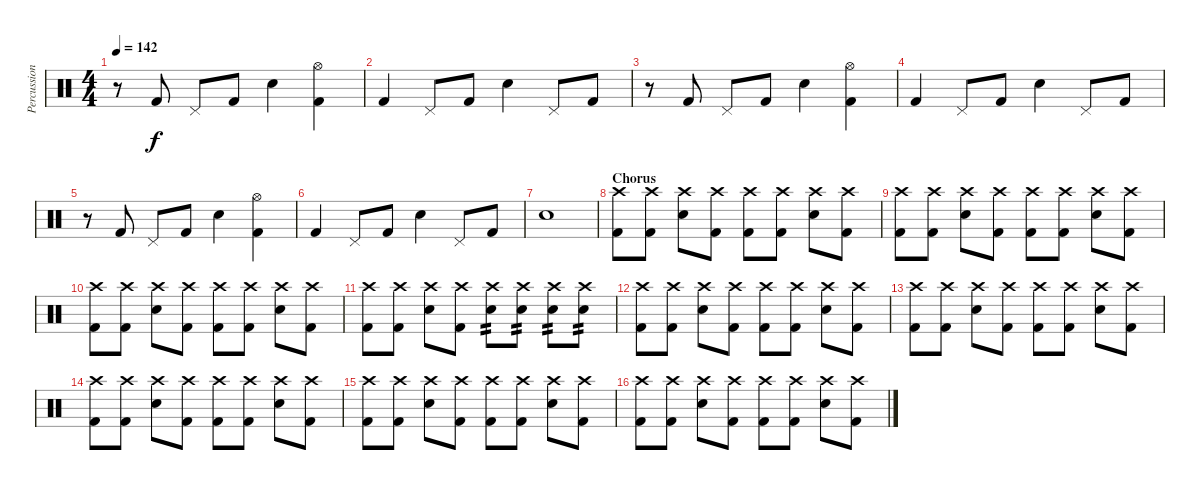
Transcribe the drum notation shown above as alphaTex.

\track ("Percussion" "Percussion") {instrument percussion}
\staff {score}
\articulation defaults
\ts (4 4)
\tempo 142
\clef neutral
\ks c
r.8{dy f} "Kick (hit) 2".8 "Pedal Hi-Hat (hit)".8 "Kick (hit) 2".8 "Snare (hit) 2".4 ("Hi-Hat (open)" "Kick (hit) 2").4 |
"Kick (hit) 2".4 "Pedal Hi-Hat (hit)".8 "Kick (hit) 2".8 "Snare (hit) 2".4 "Pedal Hi-Hat (hit)".8 "Kick (hit) 2".8 |
r.8 "Kick (hit) 2".8 "Pedal Hi-Hat (hit)".8 "Kick (hit) 2".8 "Snare (hit) 2".4 ("Hi-Hat (open)" "Kick (hit) 2").4 |
"Kick (hit) 2".4 "Pedal Hi-Hat (hit)".8 "Kick (hit) 2".8 "Snare (hit) 2".4 "Pedal Hi-Hat (hit)".8 "Kick (hit) 2".8 |
r.8 "Kick (hit) 2".8 "Pedal Hi-Hat (hit)".8 "Kick (hit) 2".8 "Snare (hit) 2".4 ("Hi-Hat (open)" "Kick (hit) 2").4 |
"Kick (hit) 2".4 "Pedal Hi-Hat (hit)".8 "Kick (hit) 2".8 "Snare (hit) 2".4 "Pedal Hi-Hat (hit)".8 "Kick (hit) 2".8 |
"Snare (hit) 2".1 |
\section ("" "Chorus")
("Crash high (hit)" "Kick (hit) 2").8 ("Crash high (hit)" "Kick (hit) 2").8 ("Crash high (hit)" "Snare (hit) 2").8 ("Crash high (hit)" "Kick (hit) 2").8 ("Crash high (hit)" "Kick (hit) 2").8 ("Crash high (hit)" "Kick (hit) 2").8 ("Crash high (hit)" "Snare (hit) 2").8 ("Crash high (hit)" "Kick (hit) 2").8 |
("Crash high (hit)" "Kick (hit) 2").8 ("Crash high (hit)" "Kick (hit) 2").8 ("Crash high (hit)" "Snare (hit) 2").8 ("Crash high (hit)" "Kick (hit) 2").8 ("Crash high (hit)" "Kick (hit) 2").8 ("Crash high (hit)" "Kick (hit) 2").8 ("Crash high (hit)" "Snare (hit) 2").8 ("Crash high (hit)" "Kick (hit) 2").8 |
("Crash high (hit)" "Kick (hit) 2").8 ("Crash high (hit)" "Kick (hit) 2").8 ("Crash high (hit)" "Snare (hit) 2").8 ("Crash high (hit)" "Kick (hit) 2").8 ("Crash high (hit)" "Kick (hit) 2").8 ("Crash high (hit)" "Kick (hit) 2").8 ("Crash high (hit)" "Snare (hit) 2").8 ("Crash high (hit)" "Kick (hit) 2").8 |
("Crash high (hit)" "Kick (hit) 2").8 ("Crash high (hit)" "Kick (hit) 2").8 ("Crash high (hit)" "Snare (hit) 2").8 ("Crash high (hit)" "Kick (hit) 2").8 ("Crash high (hit)" "Snare (hit) 2").8{tp 2} ("Crash high (hit)" "Snare (hit) 2").8{tp 2} ("Crash high (hit)" "Snare (hit) 2").8{tp 2} ("Crash high (hit)" "Snare (hit) 2").8{tp 2} |
("Crash high (hit)" "Kick (hit) 2").8 ("Crash high (hit)" "Kick (hit) 2").8 ("Crash high (hit)" "Snare (hit) 2").8 ("Crash high (hit)" "Kick (hit) 2").8 ("Crash high (hit)" "Kick (hit) 2").8 ("Crash high (hit)" "Kick (hit) 2").8 ("Crash high (hit)" "Snare (hit) 2").8 ("Crash high (hit)" "Kick (hit) 2").8 |
("Crash high (hit)" "Kick (hit) 2").8 ("Crash high (hit)" "Kick (hit) 2").8 ("Crash high (hit)" "Snare (hit) 2").8 ("Crash high (hit)" "Kick (hit) 2").8 ("Crash high (hit)" "Kick (hit) 2").8 ("Crash high (hit)" "Kick (hit) 2").8 ("Crash high (hit)" "Snare (hit) 2").8 ("Crash high (hit)" "Kick (hit) 2").8 |
("Crash high (hit)" "Kick (hit) 2").8 ("Crash high (hit)" "Kick (hit) 2").8 ("Crash high (hit)" "Snare (hit) 2").8 ("Crash high (hit)" "Kick (hit) 2").8 ("Crash high (hit)" "Kick (hit) 2").8 ("Crash high (hit)" "Kick (hit) 2").8 ("Crash high (hit)" "Snare (hit) 2").8 ("Crash high (hit)" "Kick (hit) 2").8 |
("Crash high (hit)" "Kick (hit) 2").8 ("Crash high (hit)" "Kick (hit) 2").8 ("Crash high (hit)" "Snare (hit) 2").8 ("Crash high (hit)" "Kick (hit) 2").8 ("Crash high (hit)" "Kick (hit) 2").8 ("Crash high (hit)" "Kick (hit) 2").8 ("Crash high (hit)" "Snare (hit) 2").8 ("Crash high (hit)" "Kick (hit) 2").8 |
("Crash high (hit)" "Kick (hit) 2").8 ("Crash high (hit)" "Kick (hit) 2").8 ("Crash high (hit)" "Snare (hit) 2").8 ("Crash high (hit)" "Kick (hit) 2").8 ("Crash high (hit)" "Kick (hit) 2").8 ("Crash high (hit)" "Kick (hit) 2").8 ("Crash high (hit)" "Snare (hit) 2").8 ("Crash high (hit)" "Kick (hit) 2").8
